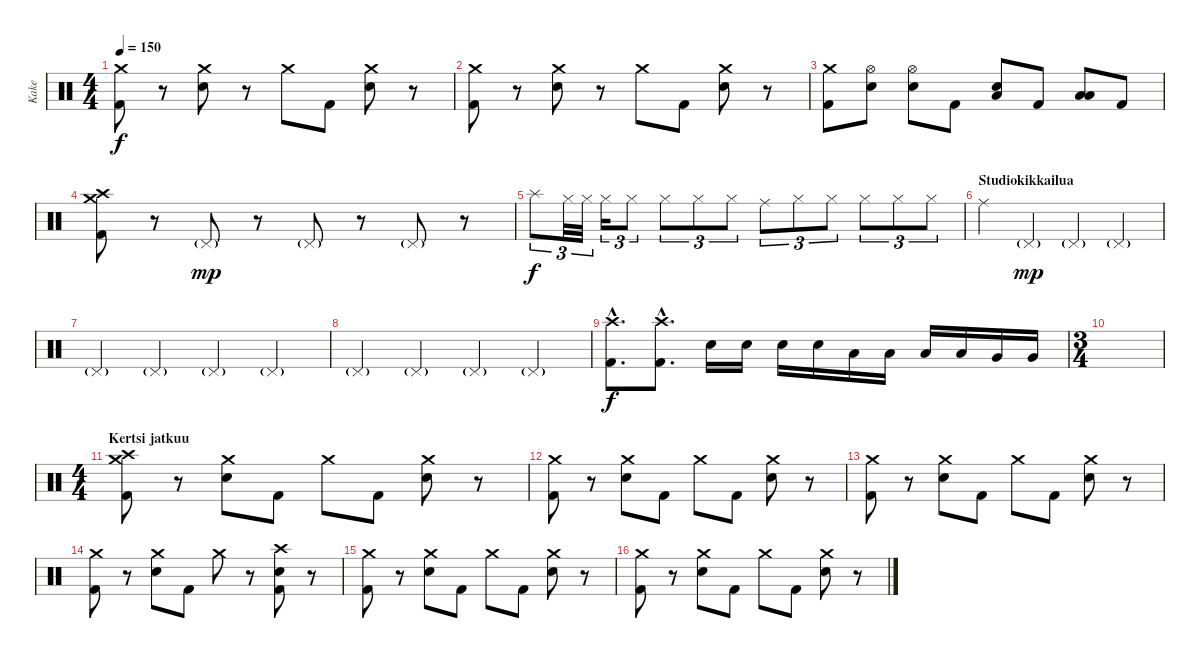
\track ("Kake" "Kake") {instrument percussion}
\staff {score}
\articulation defaults
\ts (4 4)
\tempo 150
\clef neutral
\ks c
("Crash medium (hit)" "Kick (hit) 2").8{dy f} r.8 ("Crash medium (hit)" "Electric Snare (hit)").8 r.8 "Crash medium (hit)".8 "Kick (hit) 2".8 ("Crash medium (hit)" "Electric Snare (hit)").8 r.8 |
("Crash medium (hit)" "Kick (hit) 2").8 r.8 ("Crash medium (hit)" "Electric Snare (hit)").8 r.8 "Crash medium (hit)".8 "Kick (hit) 2".8 ("Crash medium (hit)" "Electric Snare (hit)").8 r.8 |
("Crash medium (hit)" "Kick (hit) 2").8 ("Hi-Hat (open)" "Electric Snare (hit)").8 ("Hi-Hat (open)" "Electric Snare (hit)").8 "Kick (hit) 2".8 ("Electric Snare (hit)" "Low Floor Tom (hit)").8 "Kick (hit) 2".8 ("Low Tom (hit)" "Low Floor Tom (hit)").8 "Kick (hit) 2".8 |
("Crash high (hit)" "Crash medium (hit)" "Kick (hit) 2").8 r.8 "Pedal Hi-Hat (hit)"{g}.8{dy mp} r.8 "Pedal Hi-Hat (hit)"{g}.8 r.8 "Pedal Hi-Hat (hit)"{g}.8 r.8 |
"Splash (hit)".8{tu (3 2) dy f} "Hi-Hat (closed)".32{tu (3 2)} "Hi-Hat (closed)".32{tu (3 2)} "Hi-Hat (closed)".16{tu (3 2)} "Hi-Hat (closed)".8{tu (3 2)} "Hi-Hat (closed)".8{tu (3 2)} "Hi-Hat (closed)".8{tu (3 2)} "Hi-Hat (closed)".8{tu (3 2)} "Ride (middle)".8{tu (3 2)} "Hi-Hat (closed)".8{tu (3 2)} "Hi-Hat (closed)".8{tu (3 2)} "Hi-Hat (closed)".8{tu (3 2)} "Hi-Hat (closed)".8{tu (3 2)} "Hi-Hat (closed)".8{tu (3 2)} |
\section ("" "Studiokikkailua")
"Ride (middle)".4 "Pedal Hi-Hat (hit)"{g}.4{dy mp} "Pedal Hi-Hat (hit)"{g}.4 "Pedal Hi-Hat (hit)"{g}.4 |
"Pedal Hi-Hat (hit)"{g}.4 "Pedal Hi-Hat (hit)"{g}.4 "Pedal Hi-Hat (hit)"{g}.4 "Pedal Hi-Hat (hit)"{g}.4 |
"Pedal Hi-Hat (hit)"{g}.4 "Pedal Hi-Hat (hit)"{g}.4 "Pedal Hi-Hat (hit)"{g}.4 "Pedal Hi-Hat (hit)"{g}.4 |
("Crash high (hit)"{hac} "Kick (hit) 2"{hac}).8{d dy f} ("Crash high (hit)"{hac} "Kick (hit) 2"{hac}).8{d} "Electric Snare (hit)".16 "Electric Snare (hit)".16 "Electric Snare (hit)".16 "Electric Snare (hit)".16 "Low Tom (hit)".16 "Low Tom (hit)".16 "Low Tom (hit)".16 "Low Tom (hit)".16 "Very Low Tom (hit)".16 "Very Low Tom (hit)".16 |
\ts (3 4)
|
\ts (4 4)
\section ("" "Kertsi jatkuu")
("Crash medium (hit)" "Crash high (hit)" "Kick (hit) 2").8 r.8 ("Crash medium (hit)" "Electric Snare (hit)").8 "Kick (hit) 2".8 "Crash medium (hit)".8 "Kick (hit) 2".8 ("Crash medium (hit)" "Electric Snare (hit)").8 r.8 |
("Crash medium (hit)" "Kick (hit) 2").8 r.8 ("Crash medium (hit)" "Electric Snare (hit)").8 "Kick (hit) 2".8 "Crash medium (hit)".8 "Kick (hit) 2".8 ("Crash medium (hit)" "Electric Snare (hit)").8 r.8 |
("Crash medium (hit)" "Kick (hit) 2").8 r.8 ("Crash medium (hit)" "Electric Snare (hit)").8 "Kick (hit) 2".8 "Crash medium (hit)".8 "Kick (hit) 2".8 ("Crash medium (hit)" "Electric Snare (hit)").8 r.8 |
("Crash medium (hit)" "Kick (hit) 2").8 r.8 ("Crash medium (hit)" "Electric Snare (hit)").8 "Kick (hit) 2".8 "Crash medium (hit)".8 r.8 ("Crash high (hit)" "Electric Snare (hit)" "Kick (hit) 2").8 r.8 |
("Crash medium (hit)" "Kick (hit) 2").8 r.8 ("Crash medium (hit)" "Electric Snare (hit)").8 "Kick (hit) 2".8 "Crash medium (hit)".8 "Kick (hit) 2".8 ("Crash medium (hit)" "Electric Snare (hit)").8 r.8 |
("Crash medium (hit)" "Kick (hit) 2").8 r.8 ("Crash medium (hit)" "Electric Snare (hit)").8 "Kick (hit) 2".8 "Crash medium (hit)".8 "Kick (hit) 2".8 ("Crash medium (hit)" "Electric Snare (hit)").8 r.8
